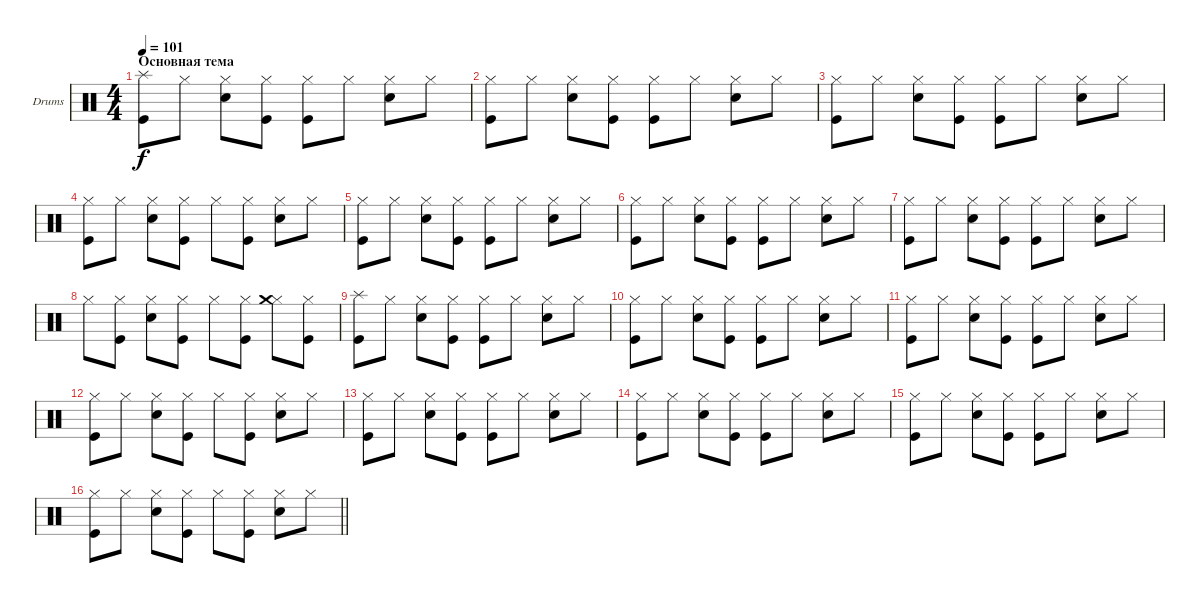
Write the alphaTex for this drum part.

\bracketExtendMode groupsimilarinstruments
\firstSystemTrackNameOrientation horizontal
\otherSystemsTrackNameOrientation horizontal
\track ("Drumkit" "Drums") {instrument percussion}
\staff {score}
\articulation defaults
\ts (4 4)
\section ("" "Основная тема")
\tempo 101
\clef neutral
\ks c
("Splash (hit)" "Kick (hit)").8{dy f} "Hi-Hat (closed)".8 ("Hi-Hat (closed)" "Snare (hit) 2").8 ("Hi-Hat (closed)" "Kick (hit)").8 ("Hi-Hat (closed)" "Kick (hit)").8 "Hi-Hat (closed)".8 ("Hi-Hat (closed)" "Snare (hit) 2").8 "Hi-Hat (closed)".8 |
("Hi-Hat (closed)" "Kick (hit)").8 "Hi-Hat (closed)".8 ("Hi-Hat (closed)" "Snare (hit) 2").8 ("Hi-Hat (closed)" "Kick (hit)").8 ("Hi-Hat (closed)" "Kick (hit)").8 "Hi-Hat (closed)".8 ("Hi-Hat (closed)" "Snare (hit) 2").8 "Hi-Hat (closed)".8 |
("Hi-Hat (closed)" "Kick (hit)").8 "Hi-Hat (closed)".8 ("Hi-Hat (closed)" "Snare (hit) 2").8 ("Hi-Hat (closed)" "Kick (hit)").8 ("Hi-Hat (closed)" "Kick (hit)").8 "Hi-Hat (closed)".8 ("Hi-Hat (closed)" "Snare (hit) 2").8 "Hi-Hat (closed)".8 |
("Hi-Hat (closed)" "Kick (hit)").8 "Hi-Hat (closed)".8 ("Hi-Hat (closed)" "Snare (hit) 2").8 ("Hi-Hat (closed)" "Kick (hit)").8 "Hi-Hat (closed)".8 ("Hi-Hat (closed)" "Kick (hit)").8 ("Hi-Hat (closed)" "Snare (hit) 2").8 "Hi-Hat (closed)".8 |
("Hi-Hat (closed)" "Kick (hit)").8 "Hi-Hat (closed)".8 ("Hi-Hat (closed)" "Snare (hit) 2").8 ("Hi-Hat (closed)" "Kick (hit)").8 ("Hi-Hat (closed)" "Kick (hit)").8 "Hi-Hat (closed)".8 ("Hi-Hat (closed)" "Snare (hit) 2").8 "Hi-Hat (closed)".8 |
("Hi-Hat (closed)" "Kick (hit)").8 "Hi-Hat (closed)".8 ("Hi-Hat (closed)" "Snare (hit) 2").8 ("Hi-Hat (closed)" "Kick (hit)").8 ("Hi-Hat (closed)" "Kick (hit)").8 "Hi-Hat (closed)".8 ("Hi-Hat (closed)" "Snare (hit) 2").8 "Hi-Hat (closed)".8 |
("Hi-Hat (closed)" "Kick (hit)").8 "Hi-Hat (closed)".8 ("Hi-Hat (closed)" "Snare (hit) 2").8 ("Hi-Hat (closed)" "Kick (hit)").8 ("Hi-Hat (closed)" "Kick (hit)").8 "Hi-Hat (closed)".8 ("Hi-Hat (closed)" "Snare (hit) 2").8 "Hi-Hat (closed)".8 |
"Hi-Hat (closed)".8 ("Hi-Hat (closed)" "Kick (hit)").8 ("Hi-Hat (closed)" "Snare (hit) 2").8 ("Hi-Hat (closed)" "Kick (hit)").8 "Hi-Hat (closed)".8 ("Hi-Hat (closed)" "Kick (hit)").8 ("Hi-Hat (closed)" "Crash medium (hit)").8 ("Hi-Hat (closed)" "Kick (hit)").8 |
("Splash (hit)" "Kick (hit)").8 "Hi-Hat (closed)".8 ("Hi-Hat (closed)" "Snare (hit) 2").8 ("Hi-Hat (closed)" "Kick (hit)").8 ("Hi-Hat (closed)" "Kick (hit)").8 "Hi-Hat (closed)".8 ("Hi-Hat (closed)" "Snare (hit) 2").8 "Hi-Hat (closed)".8 |
("Hi-Hat (closed)" "Kick (hit)").8 "Hi-Hat (closed)".8 ("Hi-Hat (closed)" "Snare (hit) 2").8 ("Hi-Hat (closed)" "Kick (hit)").8 ("Hi-Hat (closed)" "Kick (hit)").8 "Hi-Hat (closed)".8 ("Hi-Hat (closed)" "Snare (hit) 2").8 "Hi-Hat (closed)".8 |
("Hi-Hat (closed)" "Kick (hit)").8 "Hi-Hat (closed)".8 ("Hi-Hat (closed)" "Snare (hit) 2").8 ("Hi-Hat (closed)" "Kick (hit)").8 ("Hi-Hat (closed)" "Kick (hit)").8 "Hi-Hat (closed)".8 ("Hi-Hat (closed)" "Snare (hit) 2").8 "Hi-Hat (closed)".8 |
("Hi-Hat (closed)" "Kick (hit)").8 "Hi-Hat (closed)".8 ("Hi-Hat (closed)" "Snare (hit) 2").8 ("Hi-Hat (closed)" "Kick (hit)").8 "Hi-Hat (closed)".8 ("Hi-Hat (closed)" "Kick (hit)").8 ("Hi-Hat (closed)" "Snare (hit) 2").8 "Hi-Hat (closed)".8 |
("Hi-Hat (closed)" "Kick (hit)").8 "Hi-Hat (closed)".8 ("Hi-Hat (closed)" "Snare (hit) 2").8 ("Hi-Hat (closed)" "Kick (hit)").8 ("Hi-Hat (closed)" "Kick (hit)").8 "Hi-Hat (closed)".8 ("Hi-Hat (closed)" "Snare (hit) 2").8 "Hi-Hat (closed)".8 |
("Hi-Hat (closed)" "Kick (hit)").8 "Hi-Hat (closed)".8 ("Hi-Hat (closed)" "Snare (hit) 2").8 ("Hi-Hat (closed)" "Kick (hit)").8 ("Hi-Hat (closed)" "Kick (hit)").8 "Hi-Hat (closed)".8 ("Hi-Hat (closed)" "Snare (hit) 2").8 "Hi-Hat (closed)".8 |
("Hi-Hat (closed)" "Kick (hit)").8 "Hi-Hat (closed)".8 ("Hi-Hat (closed)" "Snare (hit) 2").8 ("Hi-Hat (closed)" "Kick (hit)").8 ("Hi-Hat (closed)" "Kick (hit)").8 "Hi-Hat (closed)".8 ("Hi-Hat (closed)" "Snare (hit) 2").8 "Hi-Hat (closed)".8 |
\barLineRight lightlight
("Hi-Hat (closed)" "Kick (hit)").8 "Hi-Hat (closed)".8 ("Hi-Hat (closed)" "Snare (hit) 2").8 ("Hi-Hat (closed)" "Kick (hit)").8 "Hi-Hat (closed)".8 ("Hi-Hat (closed)" "Kick (hit)").8 ("Hi-Hat (closed)" "Snare (hit) 2").8 "Hi-Hat (closed)".8
